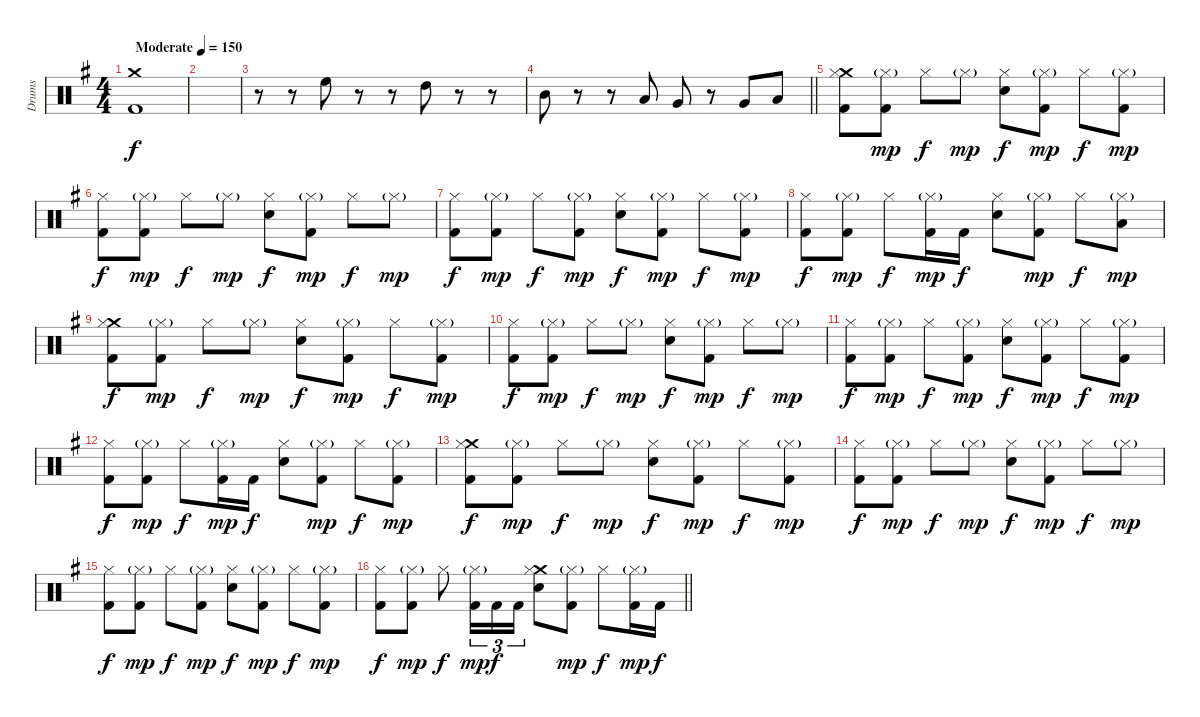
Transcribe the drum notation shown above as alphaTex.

\track ("Drums" "Drums") {instrument percussion}
\staff {score}
\articulation defaults
\ts (4 4)
\section ("" "")
\tempo (150 "Moderate")
\clef neutral
\ks eminor
("Crash medium (hit)" "Kick (hit) 2").1{dy f} |
|
r.8 r.8 "High Floor Tom (hit)".8 r.8 r.8 "High Tom (hit)".8 r.8 r.8 |
\barLineRight lightlight "Mid Tom (hit)".8
r.8 r.8 "Low Tom (hit)".8 "Very Low Tom (hit)".8 r.8 "Very Low Tom (hit)".8 "Low Floor Tom (hit)".8 |
\section ("" "")
("Crash medium (hit)" "Hi-Hat (closed)" "Kick (hit) 2").8 ("Hi-Hat (closed)"{g} "Kick (hit) 2").8{dy mp} "Hi-Hat (closed)".8{dy f} "Hi-Hat (closed)"{g}.8{dy mp} ("Hi-Hat (closed)" "Electric Snare (hit)").8{dy f} ("Hi-Hat (closed)"{g} "Kick (hit) 2").8{dy mp} "Hi-Hat (closed)".8{dy f} ("Hi-Hat (closed)"{g} "Kick (hit) 2").8{dy mp} |
("Hi-Hat (closed)" "Kick (hit) 2").8{dy f} ("Hi-Hat (closed)"{g} "Kick (hit) 2").8{dy mp} "Hi-Hat (closed)".8{dy f} "Hi-Hat (closed)"{g}.8{dy mp} ("Hi-Hat (closed)" "Electric Snare (hit)").8{dy f} ("Hi-Hat (closed)"{g} "Kick (hit) 2").8{dy mp} "Hi-Hat (closed)".8{dy f} "Hi-Hat (closed)"{g}.8{dy mp} |
("Hi-Hat (closed)" "Kick (hit) 2").8{dy f} ("Hi-Hat (closed)"{g} "Kick (hit) 2").8{dy mp} "Hi-Hat (closed)".8{dy f} ("Hi-Hat (closed)"{g} "Kick (hit) 2").8{dy mp} ("Hi-Hat (closed)" "Electric Snare (hit)").8{dy f} ("Hi-Hat (closed)"{g} "Kick (hit) 2").8{dy mp} "Hi-Hat (closed)".8{dy f} ("Hi-Hat (closed)"{g} "Kick (hit) 2").8{dy mp} |
("Hi-Hat (closed)" "Kick (hit) 2").8{dy f} ("Hi-Hat (closed)"{g} "Kick (hit) 2").8{dy mp} "Hi-Hat (closed)".8{dy f} ("Hi-Hat (closed)"{g} "Kick (hit) 2").16{dy mp} "Kick (hit) 2".16{dy f} ("Hi-Hat (closed)" "Electric Snare (hit)").8 ("Hi-Hat (closed)"{g} "Kick (hit) 2").8{dy mp} "Hi-Hat (closed)".8{dy f} ("Hi-Hat (closed)"{g} "Low Tom (hit)").8{dy mp} |
("Crash medium (hit)" "Hi-Hat (closed)" "Kick (hit) 2").8{dy f} ("Hi-Hat (closed)"{g} "Kick (hit) 2").8{dy mp} "Hi-Hat (closed)".8{dy f} "Hi-Hat (closed)"{g}.8{dy mp} ("Hi-Hat (closed)" "Electric Snare (hit)").8{dy f} ("Hi-Hat (closed)"{g} "Kick (hit) 2").8{dy mp} "Hi-Hat (closed)".8{dy f} ("Hi-Hat (closed)"{g} "Kick (hit) 2").8{dy mp} |
("Hi-Hat (closed)" "Kick (hit) 2").8{dy f} ("Hi-Hat (closed)"{g} "Kick (hit) 2").8{dy mp} "Hi-Hat (closed)".8{dy f} "Hi-Hat (closed)"{g}.8{dy mp} ("Hi-Hat (closed)" "Electric Snare (hit)").8{dy f} ("Hi-Hat (closed)"{g} "Kick (hit) 2").8{dy mp} "Hi-Hat (closed)".8{dy f} "Hi-Hat (closed)"{g}.8{dy mp} |
("Hi-Hat (closed)" "Kick (hit) 2").8{dy f} ("Hi-Hat (closed)"{g} "Kick (hit) 2").8{dy mp} "Hi-Hat (closed)".8{dy f} ("Hi-Hat (closed)"{g} "Kick (hit) 2").8{dy mp} ("Hi-Hat (closed)" "Electric Snare (hit)").8{dy f} ("Hi-Hat (closed)"{g} "Kick (hit) 2").8{dy mp} "Hi-Hat (closed)".8{dy f} ("Hi-Hat (closed)"{g} "Kick (hit) 2").8{dy mp} |
("Hi-Hat (closed)" "Kick (hit) 2").8{dy f} ("Hi-Hat (closed)"{g} "Kick (hit) 2").8{dy mp} "Hi-Hat (closed)".8{dy f} ("Hi-Hat (closed)"{g} "Kick (hit) 2").16{dy mp} "Kick (hit) 2".16{dy f} ("Hi-Hat (closed)" "Electric Snare (hit)").8 ("Hi-Hat (closed)"{g} "Kick (hit) 2").8{dy mp} "Hi-Hat (closed)".8{dy f} ("Hi-Hat (closed)"{g} "Kick (hit) 2").8{dy mp} |
("Crash medium (hit)" "Hi-Hat (closed)" "Kick (hit) 2").8{dy f} ("Hi-Hat (closed)"{g} "Kick (hit) 2").8{dy mp} "Hi-Hat (closed)".8{dy f} "Hi-Hat (closed)"{g}.8{dy mp} ("Hi-Hat (closed)" "Electric Snare (hit)").8{dy f} ("Hi-Hat (closed)"{g} "Kick (hit) 2").8{dy mp} "Hi-Hat (closed)".8{dy f} ("Hi-Hat (closed)"{g} "Kick (hit) 2").8{dy mp} |
("Hi-Hat (closed)" "Kick (hit) 2").8{dy f} ("Hi-Hat (closed)"{g} "Kick (hit) 2").8{dy mp} "Hi-Hat (closed)".8{dy f} "Hi-Hat (closed)"{g}.8{dy mp} ("Hi-Hat (closed)" "Electric Snare (hit)").8{dy f} ("Hi-Hat (closed)"{g} "Kick (hit) 2").8{dy mp} "Hi-Hat (closed)".8{dy f} "Hi-Hat (closed)"{g}.8{dy mp} |
("Hi-Hat (closed)" "Kick (hit) 2").8{dy f} ("Hi-Hat (closed)"{g} "Kick (hit) 2").8{dy mp} "Hi-Hat (closed)".8{dy f} ("Hi-Hat (closed)"{g} "Kick (hit) 2").8{dy mp} ("Hi-Hat (closed)" "Electric Snare (hit)").8{dy f} ("Hi-Hat (closed)"{g} "Kick (hit) 2").8{dy mp} "Hi-Hat (closed)".8{dy f} ("Hi-Hat (closed)"{g} "Kick (hit) 2").8{dy mp} |
\barLineRight lightlight
("Hi-Hat (closed)" "Kick (hit) 2").8{dy f} ("Hi-Hat (closed)"{g} "Kick (hit) 2").8{dy mp} "Hi-Hat (closed)".8{dy f} ("Hi-Hat (closed)"{g} "Kick (hit) 2").16{tu (3 2) dy mp} "Kick (hit) 2".16{tu (3 2) dy f} "Kick (hit) 2".16{tu (3 2)} ("Crash medium (hit)" "Hi-Hat (closed)" "Electric Snare (hit)").8 ("Hi-Hat (closed)"{g} "Kick (hit) 2").8{dy mp} "Hi-Hat (closed)".8{dy f} ("Hi-Hat (closed)"{g} "Kick (hit) 2").16{dy mp} "Kick (hit) 2".16{dy f}
